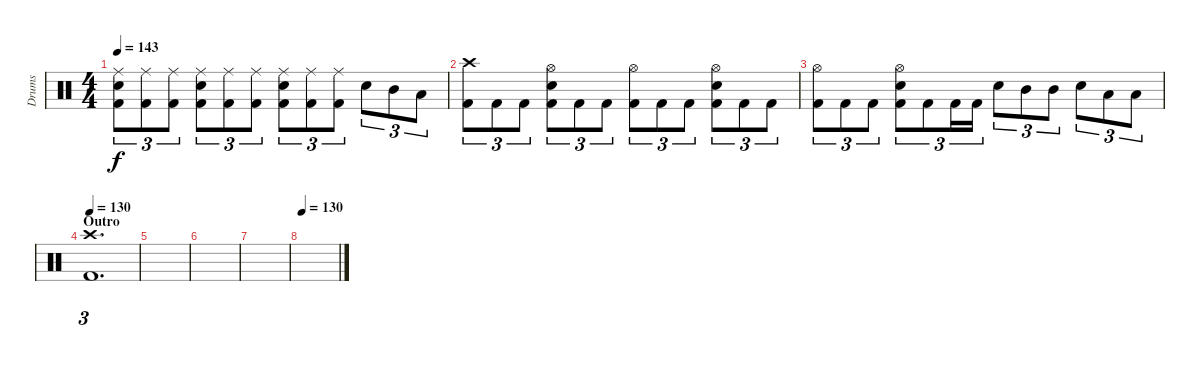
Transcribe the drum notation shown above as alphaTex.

\track ("Drums" "Drums") {instrument percussion}
\staff {score}
\articulation defaults
\ts (4 4)
\tempo 143
\clef neutral
\ks c
("Ride (middle)" "Snare (hit) 2" "Kick (hit) 2").8{tu (3 2) dy f} ("Ride (middle)" "Kick (hit) 2").8{tu (3 2)} ("Ride (middle)" "Kick (hit) 2").8{tu (3 2)} ("Ride (middle)" "Snare (hit) 2" "Kick (hit) 2").8{tu (3 2)} ("Ride (middle)" "Kick (hit) 2").8{tu (3 2)} ("Ride (middle)" "Kick (hit) 2").8{tu (3 2)} ("Ride (middle)" "Snare (hit) 2" "Kick (hit) 2").8{tu (3 2)} ("Ride (middle)" "Kick (hit) 2").8{tu (3 2)} ("Ride (middle)" "Kick (hit) 2").8{tu (3 2)} "Snare (hit) 2".8{tu (3 2)} "Mid Tom (hit)".8{tu (3 2)} "Low Tom (hit)".8{tu (3 2)} |
("Crash high (hit)" "Kick (hit) 2").8{tu (3 2)} "Kick (hit) 2".8{tu (3 2)} "Kick (hit) 2".8{tu (3 2)} ("Hi-Hat (open)" "Snare (hit) 2" "Kick (hit) 2").8{tu (3 2)} "Kick (hit) 2".8{tu (3 2)} "Kick (hit) 2".8{tu (3 2)} ("Hi-Hat (open)" "Kick (hit) 2").8{tu (3 2)} "Kick (hit) 2".8{tu (3 2)} "Kick (hit) 2".8{tu (3 2)} ("Hi-Hat (open)" "Snare (hit) 2" "Kick (hit) 2").8{tu (3 2)} "Kick (hit) 2".8{tu (3 2)} "Kick (hit) 2".8{tu (3 2)} |
("Hi-Hat (open)" "Kick (hit) 2").8{tu (3 2)} "Kick (hit) 2".8{tu (3 2)} "Kick (hit) 2".8{tu (3 2)} ("Hi-Hat (open)" "Snare (hit) 2" "Kick (hit) 2").8{tu (3 2)} "Kick (hit) 2".8{tu (3 2)} "Kick (hit) 2".16{tu (3 2)} "Kick (hit) 2".16{tu (3 2)} "Snare (hit) 2".8{tu (3 2)} "Mid Tom (hit)".8{tu (3 2)} "Mid Tom (hit)".8{tu (3 2)} "Snare (hit) 2".8{tu (3 2)} "Low Tom (hit)".8{tu (3 2)} "Low Tom (hit)".8{tu (3 2)} |
\section ("" "Outro")
\tempo 130
("Crash high (hit)" "Kick (hit) 2").1{d tu (3 2)} |
|
|
|
\tempo 130
